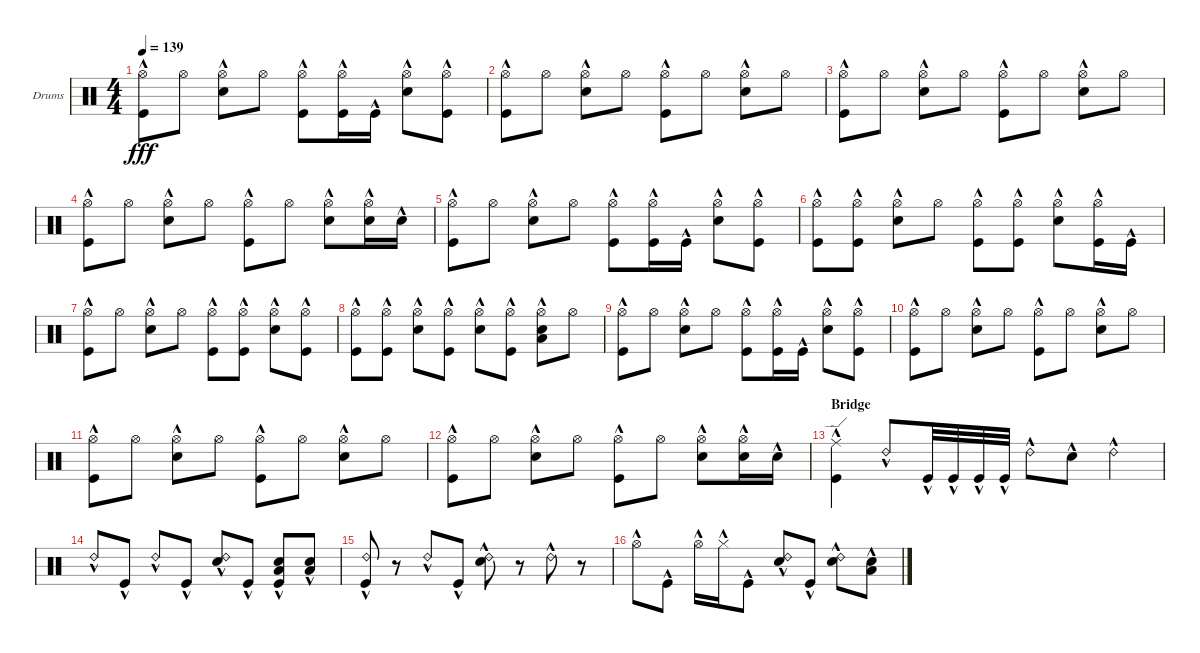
\bracketExtendMode groupsimilarinstruments
\firstSystemTrackNameOrientation horizontal
\otherSystemsTrackNameOrientation horizontal
\track ("Drumkit" "Drums") {instrument percussion}
\staff {score}
\articulation defaults
\ts (4 4)
\tempo 139
\clef neutral
\ks c
("Hi-Hat (open)"{hac} "Kick (hit)"{hac}).8{dy fff} "Hi-Hat (open)".8 ("Hi-Hat (open)"{hac} "Snare (hit) 2"{hac}).8 "Hi-Hat (open)".8 ("Hi-Hat (open)"{hac} "Kick (hit)"{hac}).8 ("Hi-Hat (open)" "Kick (hit)"{hac}).16 "Kick (hit)"{hac}.16 ("Hi-Hat (open)"{hac} "Snare (hit) 2"{hac}).8 ("Hi-Hat (open)" "Kick (hit)"{hac}).8 |
\scale
0.367959 ("Hi-Hat (open)"{hac} "Kick (hit)"{hac}).8 "Hi-Hat (open)".8 ("Hi-Hat (open)"{hac} "Snare (hit) 2"{hac}).8 "Hi-Hat (open)".8 ("Hi-Hat (open)"{hac} "Kick (hit)"{hac}).8 "Hi-Hat (open)".8 ("Hi-Hat (open)"{hac} "Snare (hit) 2"{hac}).8 "Hi-Hat (open)".8 |
\scale
0.175637 ("Hi-Hat (open)"{hac} "Kick (hit)"{hac}).8 "Hi-Hat (open)".8 ("Hi-Hat (open)"{hac} "Snare (hit) 2"{hac}).8 "Hi-Hat (open)".8 ("Hi-Hat (open)"{hac} "Kick (hit)"{hac}).8 "Hi-Hat (open)".8 ("Hi-Hat (open)"{hac} "Snare (hit) 2"{hac}).8 "Hi-Hat (open)".8 |
\scale
0.455117 ("Hi-Hat (open)"{hac} "Kick (hit)"{hac}).8 "Hi-Hat (open)".8 ("Hi-Hat (open)"{hac} "Snare (hit) 2"{hac}).8 "Hi-Hat (open)".8 ("Hi-Hat (open)"{hac} "Kick (hit)"{hac}).8 "Hi-Hat (open)".8 ("Hi-Hat (open)"{hac} "Snare (hit) 2"{hac}).8 ("Hi-Hat (open)" "Snare (hit) 2"{hac}).16 "Snare (hit) 2"{hac}.16 |
("Hi-Hat (open)"{hac} "Kick (hit)"{hac}).8 "Hi-Hat (open)".8 ("Hi-Hat (open)"{hac} "Snare (hit) 2"{hac}).8 "Hi-Hat (open)".8 ("Hi-Hat (open)"{hac} "Kick (hit)"{hac}).8 ("Hi-Hat (open)" "Kick (hit)"{hac}).16 "Kick (hit)"{hac}.16 ("Hi-Hat (open)"{hac} "Snare (hit) 2"{hac}).8 ("Hi-Hat (open)" "Kick (hit)"{hac}).8 |
("Hi-Hat (open)"{hac} "Kick (hit)"{hac}).8 ("Hi-Hat (open)" "Kick (hit)"{hac}).8 ("Hi-Hat (open)"{hac} "Snare (hit) 2"{hac}).8 "Hi-Hat (open)".8 ("Hi-Hat (open)"{hac} "Kick (hit)"{hac}).8 ("Hi-Hat (open)" "Kick (hit)"{hac}).8 ("Hi-Hat (open)"{hac} "Snare (hit) 2"{hac}).8 ("Hi-Hat (open)" "Kick (hit)"{hac}).16 "Kick (hit)"{hac}.16 |
("Hi-Hat (open)"{hac} "Kick (hit)"{hac}).8 "Hi-Hat (open)".8 ("Hi-Hat (open)"{hac} "Snare (hit) 2"{hac}).8 "Hi-Hat (open)".8 ("Hi-Hat (open)"{hac} "Kick (hit)"{hac}).8 ("Hi-Hat (open)" "Kick (hit)"{hac}).8 ("Hi-Hat (open)"{hac} "Snare (hit) 2"{hac}).8 ("Hi-Hat (open)" "Kick (hit)"{hac}).8 |
("Hi-Hat (open)"{hac} "Kick (hit)"{hac}).8 ("Hi-Hat (open)" "Kick (hit)"{hac}).8 ("Hi-Hat (open)"{hac} "Snare (hit) 2"{hac}).8 ("Hi-Hat (open)" "Kick (hit)"{hac}).8 ("Hi-Hat (open)"{hac} "Snare (hit) 2"{hac}).8 ("Hi-Hat (open)" "Kick (hit)"{hac}).8 ("Hi-Hat (open)"{hac} "Snare (hit) 2"{hac} "Low Tom (hit)"{hac}).8 "Hi-Hat (open)".8 |
("Hi-Hat (open)"{hac} "Kick (hit)"{hac}).8 "Hi-Hat (open)".8 ("Hi-Hat (open)"{hac} "Snare (hit) 2"{hac}).8 "Hi-Hat (open)".8 ("Hi-Hat (open)"{hac} "Kick (hit)"{hac}).8 ("Hi-Hat (open)" "Kick (hit)"{hac}).16 "Kick (hit)"{hac}.16 ("Hi-Hat (open)"{hac} "Snare (hit) 2"{hac}).8 ("Hi-Hat (open)" "Kick (hit)"{hac}).8 |
("Hi-Hat (open)"{hac} "Kick (hit)"{hac}).8 "Hi-Hat (open)".8 ("Hi-Hat (open)"{hac} "Snare (hit) 2"{hac}).8 "Hi-Hat (open)".8 ("Hi-Hat (open)"{hac} "Kick (hit)"{hac}).8 "Hi-Hat (open)".8 ("Hi-Hat (open)"{hac} "Snare (hit) 2"{hac}).8 "Hi-Hat (open)".8 |
\scale
0.327306 ("Hi-Hat (open)"{hac} "Kick (hit)"{hac}).8 "Hi-Hat (open)".8 ("Hi-Hat (open)"{hac} "Snare (hit) 2"{hac}).8 "Hi-Hat (open)".8 ("Hi-Hat (open)"{hac} "Kick (hit)"{hac}).8 "Hi-Hat (open)".8 ("Hi-Hat (open)"{hac} "Snare (hit) 2"{hac}).8 "Hi-Hat (open)".8 |
\scale
0.334539 ("Hi-Hat (open)"{hac} "Kick (hit)"{hac}).8 "Hi-Hat (open)".8 ("Hi-Hat (open)"{hac} "Snare (hit) 2"{hac}).8 "Hi-Hat (open)".8 ("Hi-Hat (open)"{hac} "Kick (hit)"{hac}).8 "Hi-Hat (open)".8 ("Hi-Hat (open)"{hac} "Snare (hit) 2"{hac}).8 ("Hi-Hat (open)" "Snare (hit) 2"{hac}).16 "Snare (hit) 2"{hac}.16 |
\section ("" "Bridge")
\scale
0.338156 ("Ride (edge)"{hac} "Kick (hit)"{hac}).4 "Ride (bell) 2"{hac}.8 "Kick (hit)"{hac}.32 "Kick (hit)"{hac}.32 "Kick (hit)"{hac}.32 "Kick (hit)"{hac}.32 "Ride (bell) 2"{hac}.8 "Snare (hit) 2"{hac}.8 "Ride (bell) 2"{hac}.4 |
"Ride (bell) 2"{hac}.8 "Kick (hit)"{hac}.8 "Ride (bell) 2"{hac}.8 "Kick (hit)"{hac}.8 ("Ride (bell) 2"{hac} "Snare (hit) 2"{hac}).8 "Kick (hit)"{hac}.8 ("Snare (hit) 2"{hac} "Kick (hit)"{hac} "Low Tom (hit)"{hac}).8 ("Snare (hit) 2"{hac} "Low Tom (hit)"{hac}).8 |
("Ride (bell) 2"{hac} "Kick (hit)"{hac}).8 r.8 "Ride (bell) 2"{hac}.8 "Kick (hit)"{hac}.8 ("Ride (bell) 2"{hac} "Snare (hit) 2"{hac}).8 r.8 "Ride (bell) 2"{hac}.8 r.8 |
"Hi-Hat (open)"{hac}.8 "Kick (hit)"{hac}.8 "Hi-Hat (open)"{hac}.16 "Hi-Hat (closed)"{hac}.16 "Kick (hit)"{hac}.8 ("Snare (hit) 2"{hac} "Ride (bell) 2"{hac}).8 "Kick (hit)"{hac}.8 ("Snare (hit) 2"{hac} "Ride (bell) 2"{hac}).8 ("Snare (hit) 2"{hac} "Low Tom (hit)"{hac}).8
